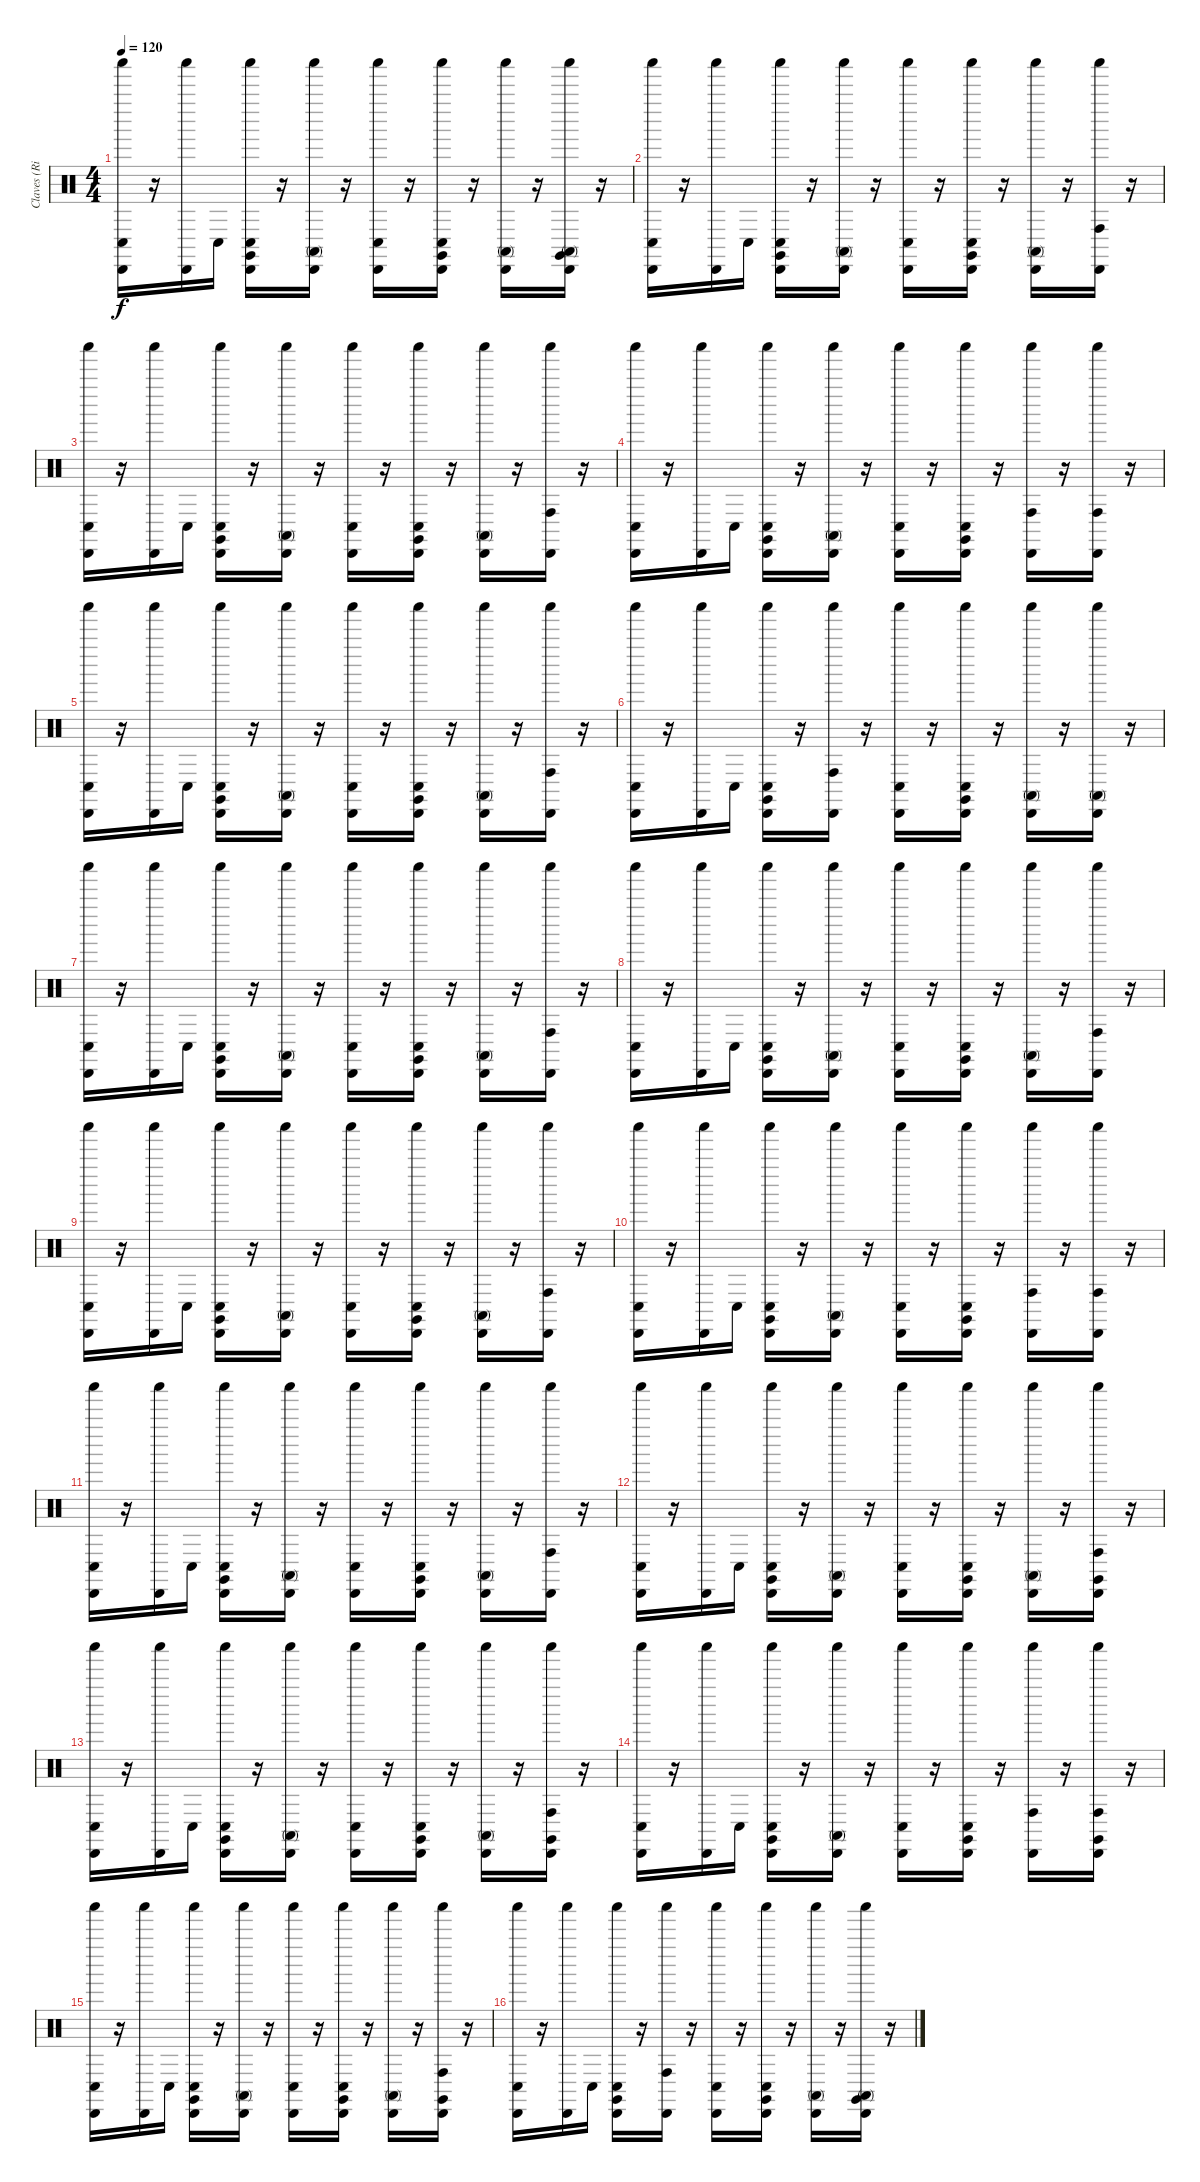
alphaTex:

\track ("Claves (Ringo)" "Claves (Ri") {instrument percussion}
\staff {score}
\articulation defaults
\ts (4 4)
\tempo 120
\clef neutral
\ks c
("Shaker (hit)" "Conga low (hit)" "Cabasa (hit)").16{dy f} r.16 ("Cabasa (hit)" "Shaker (hit)").16 "Conga low (hit)".16 ("Claves (hit)" "Cabasa (hit)" "Conga low (hit)" "Shaker (hit)").16 r.16 ("Shaker (hit)" "Cabasa (hit)" "Conga high (mute)").16 r.16 ("Cabasa (hit)" "Conga low (hit)" "Shaker (hit)").16 r.16 ("Conga low (hit)" "Claves (hit)" "Cabasa (hit)" "Shaker (hit)").16 r.16 ("Shaker (hit)" "Cabasa (hit)" "Conga high (mute)").16 r.16 ("Conga high (mute)" "Shaker (hit)" "Cabasa (hit)" "Claves (hit)").16 r.16 |
("Conga low (hit)" "Cabasa (hit)" "Shaker (hit)").16 r.16 ("Shaker (hit)" "Cabasa (hit)").16 "Conga low (hit)".16 ("Shaker (hit)" "Cabasa (hit)" "Claves (hit)" "Conga low (hit)").16 r.16 ("Conga high (mute)" "Cabasa (hit)" "Shaker (hit)").16 r.16 ("Conga low (hit)" "Shaker (hit)" "Cabasa (hit)").16 r.16 ("Conga low (hit)" "Cabasa (hit)" "Shaker (hit)" "Claves (hit)").16 r.16 ("Shaker (hit)" "Cabasa (hit)" "Conga high (mute)").16 r.16 ("Shaker (hit)" "Cabasa (hit)" "Conga high (hit)").16 r.16 |
("Cabasa (hit)" "Shaker (hit)" "Conga low (hit)").16 r.16 ("Shaker (hit)" "Cabasa (hit)").16 "Conga low (hit)".16 ("Conga low (hit)" "Cabasa (hit)" "Claves (hit)" "Shaker (hit)").16 r.16 ("Cabasa (hit)" "Conga high (mute)" "Shaker (hit)").16 r.16 ("Shaker (hit)" "Conga low (hit)" "Cabasa (hit)").16 r.16 ("Shaker (hit)" "Claves (hit)" "Conga low (hit)" "Cabasa (hit)").16 r.16 ("Conga high (mute)" "Cabasa (hit)" "Shaker (hit)").16 r.16 ("Shaker (hit)" "Cabasa (hit)" "Conga high (hit)").16 r.16 |
("Shaker (hit)" "Conga low (hit)" "Cabasa (hit)").16 r.16 ("Cabasa (hit)" "Shaker (hit)").16 "Conga low (hit)".16 ("Cabasa (hit)" "Shaker (hit)" "Conga low (hit)" "Claves (hit)").16 r.16 ("Conga high (mute)" "Shaker (hit)" "Cabasa (hit)").16 r.16 ("Conga low (hit)" "Cabasa (hit)" "Shaker (hit)").16 r.16 ("Cabasa (hit)" "Shaker (hit)" "Conga low (hit)" "Claves (hit)").16 r.16 ("Conga high (hit)" "Shaker (hit)" "Cabasa (hit)").16 r.16 ("Shaker (hit)" "Conga high (hit)" "Cabasa (hit)").16 r.16 |
("Conga low (hit)" "Shaker (hit)" "Cabasa (hit)").16 r.16 ("Cabasa (hit)" "Shaker (hit)").16 "Conga low (hit)".16 ("Conga low (hit)" "Cabasa (hit)" "Claves (hit)" "Shaker (hit)").16 r.16 ("Conga high (mute)" "Shaker (hit)" "Cabasa (hit)").16 r.16 ("Shaker (hit)" "Conga low (hit)" "Cabasa (hit)").16 r.16 ("Cabasa (hit)" "Claves (hit)" "Conga low (hit)" "Shaker (hit)").16 r.16 ("Conga high (mute)" "Shaker (hit)" "Cabasa (hit)").16 r.16 ("Shaker (hit)" "Cabasa (hit)" "Conga high (hit)").16 r.16 |
("Conga low (hit)" "Cabasa (hit)" "Shaker (hit)").16 r.16 ("Cabasa (hit)" "Shaker (hit)").16 "Conga low (hit)".16 ("Claves (hit)" "Shaker (hit)" "Cabasa (hit)" "Conga low (hit)").16 r.16 ("Conga high (hit)" "Cabasa (hit)" "Shaker (hit)").16 r.16 ("Cabasa (hit)" "Conga low (hit)" "Shaker (hit)").16 r.16 ("Shaker (hit)" "Conga low (hit)" "Claves (hit)" "Cabasa (hit)").16 r.16 ("Shaker (hit)" "Cabasa (hit)" "Conga high (mute)").16 r.16 ("Conga high (mute)" "Cabasa (hit)" "Shaker (hit)").16 r.16 |
("Conga low (hit)" "Shaker (hit)" "Cabasa (hit)").16 r.16 ("Shaker (hit)" "Cabasa (hit)").16 "Conga low (hit)".16 ("Cabasa (hit)" "Claves (hit)" "Conga low (hit)" "Shaker (hit)").16 r.16 ("Shaker (hit)" "Conga high (mute)" "Cabasa (hit)").16 r.16 ("Conga low (hit)" "Shaker (hit)" "Cabasa (hit)").16 r.16 ("Claves (hit)" "Cabasa (hit)" "Conga low (hit)" "Shaker (hit)").16 r.16 ("Conga high (mute)" "Cabasa (hit)" "Shaker (hit)").16 r.16 ("Cabasa (hit)" "Conga high (hit)" "Shaker (hit)").16 r.16 |
("Shaker (hit)" "Conga low (hit)" "Cabasa (hit)").16 r.16 ("Cabasa (hit)" "Shaker (hit)").16 "Conga low (hit)".16 ("Cabasa (hit)" "Conga low (hit)" "Shaker (hit)" "Claves (hit)").16 r.16 ("Shaker (hit)" "Conga high (mute)" "Cabasa (hit)").16 r.16 ("Shaker (hit)" "Conga low (hit)" "Cabasa (hit)").16 r.16 ("Conga low (hit)" "Cabasa (hit)" "Claves (hit)" "Shaker (hit)").16 r.16 ("Conga high (mute)" "Cabasa (hit)" "Shaker (hit)").16 r.16 ("Cabasa (hit)" "Shaker (hit)" "Conga high (hit)").16 r.16 |
("Shaker (hit)" "Cabasa (hit)" "Conga low (hit)").16 r.16 ("Shaker (hit)" "Cabasa (hit)").16 "Conga low (hit)".16 ("Cabasa (hit)" "Conga low (hit)" "Shaker (hit)" "Claves (hit)").16 r.16 ("Shaker (hit)" "Conga high (mute)" "Cabasa (hit)").16 r.16 ("Cabasa (hit)" "Conga low (hit)" "Shaker (hit)").16 r.16 ("Conga low (hit)" "Claves (hit)" "Shaker (hit)" "Cabasa (hit)").16 r.16 ("Shaker (hit)" "Cabasa (hit)" "Conga high (mute)").16 r.16 ("Shaker (hit)" "Cabasa (hit)" "Conga high (hit)").16 r.16 |
("Conga low (hit)" "Cabasa (hit)" "Shaker (hit)").16 r.16 ("Shaker (hit)" "Cabasa (hit)").16 "Conga low (hit)".16 ("Shaker (hit)" "Conga low (hit)" "Cabasa (hit)" "Claves (hit)").16 r.16 ("Cabasa (hit)" "Conga high (mute)" "Shaker (hit)").16 r.16 ("Shaker (hit)" "Cabasa (hit)" "Conga low (hit)").16 r.16 ("Claves (hit)" "Cabasa (hit)" "Conga low (hit)" "Shaker (hit)").16 r.16 ("Cabasa (hit)" "Conga high (hit)" "Shaker (hit)").16 r.16 ("Cabasa (hit)" "Shaker (hit)" "Conga high (hit)").16 r.16 |
("Shaker (hit)" "Conga low (hit)" "Cabasa (hit)").16 r.16 ("Cabasa (hit)" "Shaker (hit)").16 "Conga low (hit)".16 ("Cabasa (hit)" "Conga low (hit)" "Shaker (hit)" "Claves (hit)").16 r.16 ("Cabasa (hit)" "Shaker (hit)" "Conga high (mute)").16 r.16 ("Cabasa (hit)" "Shaker (hit)" "Conga low (hit)").16 r.16 ("Conga low (hit)" "Claves (hit)" "Shaker (hit)" "Cabasa (hit)").16 r.16 ("Cabasa (hit)" "Conga high (mute)" "Shaker (hit)").16 r.16 ("Shaker (hit)" "Conga high (hit)" "Cabasa (hit)").16 r.16 |
("Shaker (hit)" "Cabasa (hit)" "Conga low (hit)").16 r.16 ("Cabasa (hit)" "Shaker (hit)").16 "Conga low (hit)".16 ("Shaker (hit)" "Cabasa (hit)" "Conga low (hit)" "Claves (hit)").16 r.16 ("Cabasa (hit)" "Conga high (mute)" "Shaker (hit)").16 r.16 ("Conga low (hit)" "Cabasa (hit)" "Shaker (hit)").16 r.16 ("Conga low (hit)" "Shaker (hit)" "Cabasa (hit)" "Claves (hit)").16 r.16 ("Conga high (mute)" "Shaker (hit)" "Cabasa (hit)").16 r.16 ("Conga high (hit)" "Claves (hit)" "Shaker (hit)" "Cabasa (hit)").16 r.16 |
("Conga low (hit)" "Shaker (hit)" "Cabasa (hit)").16 r.16 ("Cabasa (hit)" "Shaker (hit)").16 "Conga low (hit)".16 ("Cabasa (hit)" "Conga low (hit)" "Claves (hit)" "Shaker (hit)").16 r.16 ("Cabasa (hit)" "Conga high (mute)" "Shaker (hit)").16 r.16 ("Cabasa (hit)" "Shaker (hit)" "Conga low (hit)").16 r.16 ("Shaker (hit)" "Conga low (hit)" "Claves (hit)" "Cabasa (hit)").16 r.16 ("Cabasa (hit)" "Shaker (hit)" "Conga high (mute)").16 r.16 ("Cabasa (hit)" "Shaker (hit)" "Claves (hit)" "Conga high (hit)").16 r.16 |
("Shaker (hit)" "Conga low (hit)" "Cabasa (hit)").16 r.16 ("Cabasa (hit)" "Shaker (hit)").16 "Conga low (hit)".16 ("Cabasa (hit)" "Shaker (hit)" "Conga low (hit)" "Claves (hit)").16 r.16 ("Cabasa (hit)" "Conga high (mute)" "Shaker (hit)").16 r.16 ("Cabasa (hit)" "Conga low (hit)" "Shaker (hit)").16 r.16 ("Claves (hit)" "Shaker (hit)" "Cabasa (hit)" "Conga low (hit)").16 r.16 ("Cabasa (hit)" "Conga high (hit)" "Shaker (hit)").16 r.16 ("Claves (hit)" "Conga high (hit)" "Cabasa (hit)" "Shaker (hit)").16 r.16 |
("Shaker (hit)" "Cabasa (hit)" "Conga low (hit)").16 r.16 ("Shaker (hit)" "Cabasa (hit)").16 "Conga low (hit)".16 ("Cabasa (hit)" "Claves (hit)" "Conga low (hit)" "Shaker (hit)").16 r.16 ("Shaker (hit)" "Conga high (mute)" "Cabasa (hit)").16 r.16 ("Cabasa (hit)" "Shaker (hit)" "Conga low (hit)").16 r.16 ("Claves (hit)" "Cabasa (hit)" "Shaker (hit)" "Conga low (hit)").16 r.16 ("Cabasa (hit)" "Shaker (hit)" "Conga high (mute)").16 r.16 ("Shaker (hit)" "Claves (hit)" "Conga high (hit)" "Cabasa (hit)").16 r.16 |
("Cabasa (hit)" "Conga low (hit)" "Shaker (hit)").16 r.16 ("Cabasa (hit)" "Shaker (hit)").16 "Conga low (hit)".16 ("Claves (hit)" "Cabasa (hit)" "Conga low (hit)" "Shaker (hit)").16 r.16 ("Conga high (hit)" "Cabasa (hit)" "Shaker (hit)").16 r.16 ("Conga low (hit)" "Shaker (hit)" "Cabasa (hit)").16 r.16 ("Shaker (hit)" "Claves (hit)" "Cabasa (hit)" "Conga low (hit)").16 r.16 ("Shaker (hit)" "Cabasa (hit)" "Conga high (mute)").16 r.16 ("Conga high (mute)" "Cabasa (hit)" "Claves (hit)" "Shaker (hit)").16 r.16
